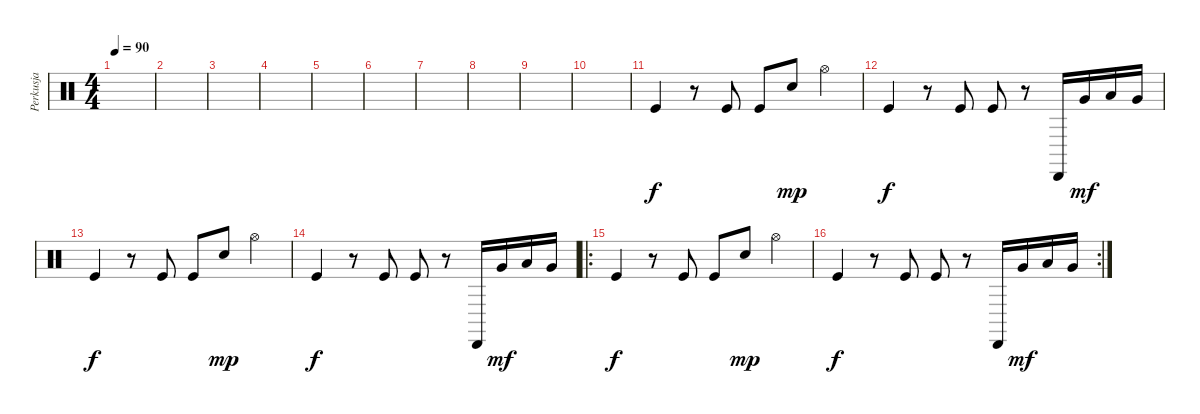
\track ("Perkusja" "Perkusja") {instrument percussion}
\staff {score}
\articulation defaults
\ts (4 4)
\tempo 90
\clef neutral
\ks c
|
|
|
|
|
|
|
|
|
|
"Kick (hit)".4 r.8 "Kick (hit)".8 "Kick (hit)".8 "Snare (hit) 2".8{dy mp} "Hi-Hat (open)".4 |
"Kick (hit)".4{dy f} r.8 "Kick (hit)".8 "Kick (hit)".8 r.8 "Cabasa (hit)"{x}.16 "Very Low Tom (hit)".16{dy mf} "Low Tom (hit)".16 "Very Low Tom (hit)".16 |
"Kick (hit)".4{dy f} r.8 "Kick (hit)".8 "Kick (hit)".8 "Snare (hit) 2".8{dy mp} "Hi-Hat (open)".4 |
"Kick (hit)".4{dy f} r.8 "Kick (hit)".8 "Kick (hit)".8 r.8 "Cabasa (hit)"{x}.16 "Very Low Tom (hit)".16{dy mf} "Low Tom (hit)".16 "Very Low Tom (hit)".16 |
\ro "Kick (hit)".4{dy f}
r.8 "Kick (hit)".8 "Kick (hit)".8 "Snare (hit) 2".8{dy mp} "Hi-Hat (open)".4 |
\rc 2 "Kick (hit)".4{dy f}
r.8 "Kick (hit)".8 "Kick (hit)".8 r.8 "Cabasa (hit)"{x}.16 "Very Low Tom (hit)".16{dy mf} "Low Tom (hit)".16 "Very Low Tom (hit)".16
